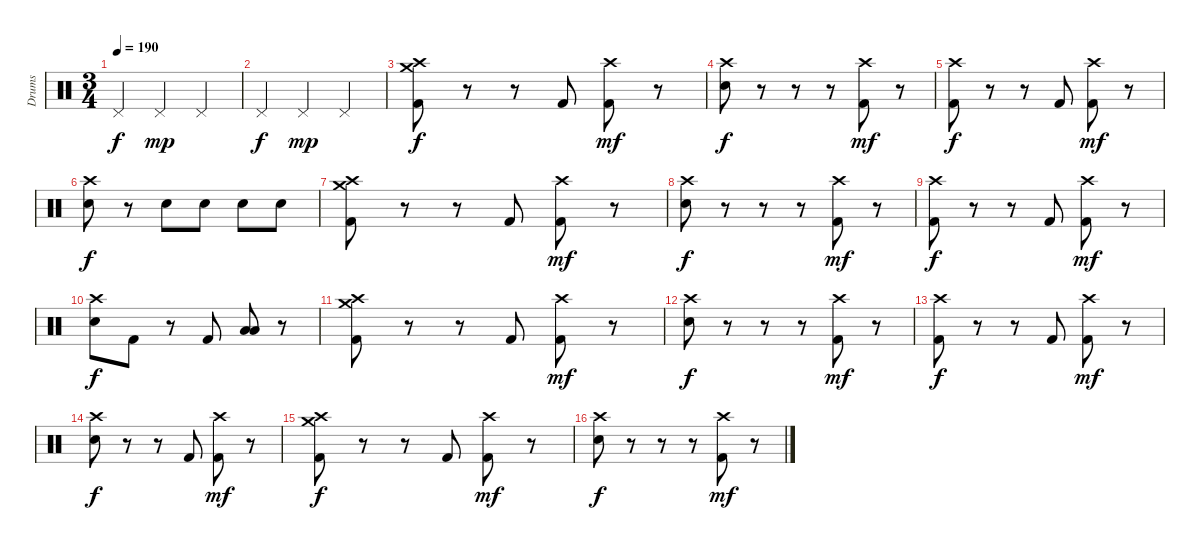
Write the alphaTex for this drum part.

\track ("Drums" "Drums") {instrument percussion}
\staff {score}
\articulation defaults
\ts (3 4)
\tempo 190
\clef neutral
\ks c "Pedal Hi-Hat (hit)".4{dy f} "Pedal Hi-Hat (hit)".4{dy mp} "Pedal Hi-Hat (hit)".4
|
"Pedal Hi-Hat (hit)".4{dy f} "Pedal Hi-Hat (hit)".4{dy mp} "Pedal Hi-Hat (hit)".4 |
("Crash medium (hit)" "Crash high (hit)" "Kick (hit) 2").8{dy f} r.8 r.8 "Kick (hit) 2".8 ("Crash high (hit)" "Kick (hit) 2").8{dy mf} r.8 |
("Crash high (hit)" "Electric Snare (hit)").8{dy f} r.8 r.8 r.8 ("Crash high (hit)" "Kick (hit) 2").8{dy mf} r.8 |
("Crash high (hit)" "Kick (hit) 2").8{dy f} r.8 r.8 "Kick (hit) 2".8 ("Crash high (hit)" "Kick (hit) 2").8{dy mf} r.8 |
("Crash high (hit)" "Electric Snare (hit)").8{dy f} r.8 "Electric Snare (hit)".8 "Electric Snare (hit)".8 "Electric Snare (hit)".8 "Electric Snare (hit)".8 |
("Crash medium (hit)" "Crash high (hit)" "Kick (hit) 2").8 r.8 r.8 "Kick (hit) 2".8 ("Crash high (hit)" "Kick (hit) 2").8{dy mf} r.8 |
("Crash high (hit)" "Electric Snare (hit)").8{dy f} r.8 r.8 r.8 ("Crash high (hit)" "Kick (hit) 2").8{dy mf} r.8 |
("Crash high (hit)" "Kick (hit) 2").8{dy f} r.8 r.8 "Kick (hit) 2".8 ("Crash high (hit)" "Kick (hit) 2").8{dy mf} r.8 |
("Crash high (hit)" "Electric Snare (hit)").8{dy f} "Kick (hit) 2".8 r.8 "Kick (hit) 2".8 ("Low Floor Tom (hit)" "Low Floor Tom (hit)").8 r.8 |
("Crash medium (hit)" "Crash high (hit)" "Kick (hit) 2").8 r.8 r.8 "Kick (hit) 2".8 ("Crash high (hit)" "Kick (hit) 2").8{dy mf} r.8 |
("Crash high (hit)" "Electric Snare (hit)").8{dy f} r.8 r.8 r.8 ("Crash high (hit)" "Kick (hit) 2").8{dy mf} r.8 |
("Crash high (hit)" "Kick (hit) 2").8{dy f} r.8 r.8 "Kick (hit) 2".8 ("Crash high (hit)" "Kick (hit) 2").8{dy mf} r.8 |
("Crash high (hit)" "Electric Snare (hit)").8{dy f} r.8 r.8 "Kick (hit) 2".8 ("Crash high (hit)" "Kick (hit) 2").8{dy mf} r.8 |
("Crash medium (hit)" "Crash high (hit)" "Kick (hit) 2").8{dy f} r.8 r.8 "Kick (hit) 2".8 ("Crash high (hit)" "Kick (hit) 2").8{dy mf} r.8 |
("Crash high (hit)" "Electric Snare (hit)").8{dy f} r.8 r.8 r.8 ("Crash high (hit)" "Kick (hit) 2").8{dy mf} r.8
